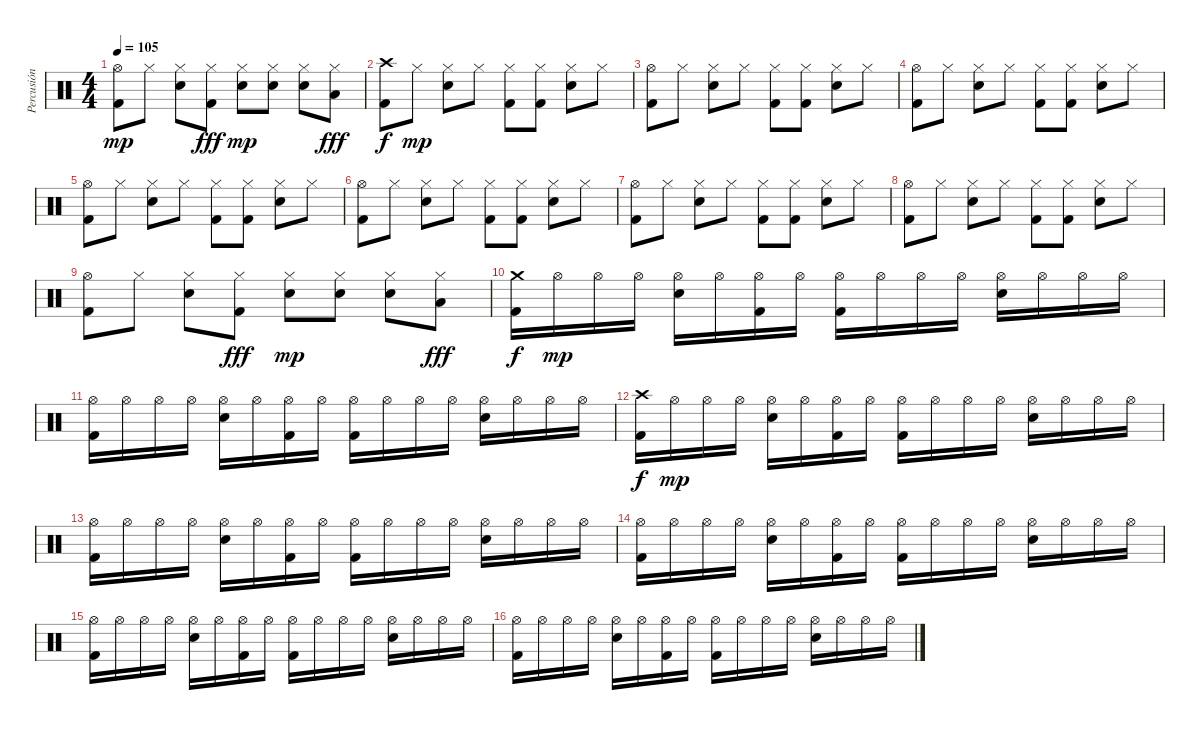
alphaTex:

\track ("Percusión" "Percusión") {instrument percussion}
\staff {score}
\articulation defaults
\ts (4 4)
\tempo 105
\clef neutral
\ks c
("Hi-Hat (open)" "Kick (hit) 2").8{dy mp} "Hi-Hat (closed)".8 ("Hi-Hat (closed)" "Snare (hit) 2").8 ("Hi-Hat (closed)" "Kick (hit) 2").8{dy fff} ("Hi-Hat (closed)" "Snare (hit) 2").8{dy mp} ("Hi-Hat (closed)" "Snare (hit) 2").8 ("Hi-Hat (closed)" "Snare (hit) 2").8 ("Hi-Hat (closed)" "Low Tom (hit)").8{dy fff} |
("Crash high (hit)" "Kick (hit) 2").8{dy f} "Hi-Hat (closed)".8{dy mp} ("Hi-Hat (closed)" "Snare (hit) 2").8 "Hi-Hat (closed)".8 ("Hi-Hat (closed)" "Kick (hit) 2").8 ("Hi-Hat (closed)" "Kick (hit) 2").8 ("Hi-Hat (closed)" "Snare (hit) 2").8 "Hi-Hat (closed)".8 |
("Hi-Hat (open)" "Kick (hit) 2").8 "Hi-Hat (closed)".8 ("Hi-Hat (closed)" "Snare (hit) 2").8 "Hi-Hat (closed)".8 ("Hi-Hat (closed)" "Kick (hit) 2").8 ("Hi-Hat (closed)" "Kick (hit) 2").8 ("Hi-Hat (closed)" "Snare (hit) 2").8 "Hi-Hat (closed)".8 |
("Hi-Hat (open)" "Kick (hit) 2").8 "Hi-Hat (closed)".8 ("Hi-Hat (closed)" "Snare (hit) 2").8 "Hi-Hat (closed)".8 ("Hi-Hat (closed)" "Kick (hit) 2").8 ("Hi-Hat (closed)" "Kick (hit) 2").8 ("Hi-Hat (closed)" "Snare (hit) 2").8 "Hi-Hat (closed)".8 |
("Hi-Hat (open)" "Kick (hit) 2").8 "Hi-Hat (closed)".8 ("Hi-Hat (closed)" "Snare (hit) 2").8 "Hi-Hat (closed)".8 ("Hi-Hat (closed)" "Kick (hit) 2").8 ("Hi-Hat (closed)" "Kick (hit) 2").8 ("Hi-Hat (closed)" "Snare (hit) 2").8 "Hi-Hat (closed)".8 |
("Hi-Hat (open)" "Kick (hit) 2").8 "Hi-Hat (closed)".8 ("Hi-Hat (closed)" "Snare (hit) 2").8 "Hi-Hat (closed)".8 ("Hi-Hat (closed)" "Kick (hit) 2").8 ("Hi-Hat (closed)" "Kick (hit) 2").8 ("Hi-Hat (closed)" "Snare (hit) 2").8 "Hi-Hat (closed)".8 |
("Hi-Hat (open)" "Kick (hit) 2").8 "Hi-Hat (closed)".8 ("Hi-Hat (closed)" "Snare (hit) 2").8 "Hi-Hat (closed)".8 ("Hi-Hat (closed)" "Kick (hit) 2").8 ("Hi-Hat (closed)" "Kick (hit) 2").8 ("Hi-Hat (closed)" "Snare (hit) 2").8 "Hi-Hat (closed)".8 |
("Hi-Hat (open)" "Kick (hit) 2").8 "Hi-Hat (closed)".8 ("Hi-Hat (closed)" "Snare (hit) 2").8 "Hi-Hat (closed)".8 ("Hi-Hat (closed)" "Kick (hit) 2").8 ("Hi-Hat (closed)" "Kick (hit) 2").8 ("Hi-Hat (closed)" "Snare (hit) 2").8 "Hi-Hat (closed)".8 |
("Hi-Hat (open)" "Kick (hit) 2").8 "Hi-Hat (closed)".8 ("Hi-Hat (closed)" "Snare (hit) 2").8 ("Hi-Hat (closed)" "Kick (hit) 2").8{dy fff} ("Hi-Hat (closed)" "Snare (hit) 2").8{dy mp} ("Hi-Hat (closed)" "Snare (hit) 2").8 ("Hi-Hat (closed)" "Snare (hit) 2").8 ("Hi-Hat (closed)" "Low Tom (hit)").8{dy fff} |
("Crash medium (hit)" "Kick (hit) 2").16{dy f} "Hi-Hat (open)".16{dy mp} "Hi-Hat (open)".16 "Hi-Hat (open)".16 ("Hi-Hat (open)" "Snare (hit) 2").16 "Hi-Hat (open)".16 ("Hi-Hat (open)" "Kick (hit) 2").16 "Hi-Hat (open)".16 ("Hi-Hat (open)" "Kick (hit) 2").16 "Hi-Hat (open)".16 "Hi-Hat (open)".16 "Hi-Hat (open)".16 ("Hi-Hat (open)" "Snare (hit) 2").16 "Hi-Hat (open)".16 "Hi-Hat (open)".16 "Hi-Hat (open)".16 |
("Hi-Hat (open)" "Kick (hit) 2").16 "Hi-Hat (open)".16 "Hi-Hat (open)".16 "Hi-Hat (open)".16 ("Hi-Hat (open)" "Snare (hit) 2").16 "Hi-Hat (open)".16 ("Hi-Hat (open)" "Kick (hit) 2").16 "Hi-Hat (open)".16 ("Hi-Hat (open)" "Kick (hit) 2").16 "Hi-Hat (open)".16 "Hi-Hat (open)".16 "Hi-Hat (open)".16 ("Hi-Hat (open)" "Snare (hit) 2").16 "Hi-Hat (open)".16 "Hi-Hat (open)".16 "Hi-Hat (open)".16 |
("Crash high (hit)" "Kick (hit) 2").16{dy f} "Hi-Hat (open)".16{dy mp} "Hi-Hat (open)".16 "Hi-Hat (open)".16 ("Hi-Hat (open)" "Snare (hit) 2").16 "Hi-Hat (open)".16 ("Hi-Hat (open)" "Kick (hit) 2").16 "Hi-Hat (open)".16 ("Hi-Hat (open)" "Kick (hit) 2").16 "Hi-Hat (open)".16 "Hi-Hat (open)".16 "Hi-Hat (open)".16 ("Hi-Hat (open)" "Snare (hit) 2").16 "Hi-Hat (open)".16 "Hi-Hat (open)".16 "Hi-Hat (open)".16 |
("Hi-Hat (open)" "Kick (hit) 2").16 "Hi-Hat (open)".16 "Hi-Hat (open)".16 "Hi-Hat (open)".16 ("Hi-Hat (open)" "Snare (hit) 2").16 "Hi-Hat (open)".16 ("Hi-Hat (open)" "Kick (hit) 2").16 "Hi-Hat (open)".16 ("Hi-Hat (open)" "Kick (hit) 2").16 "Hi-Hat (open)".16 "Hi-Hat (open)".16 "Hi-Hat (open)".16 ("Hi-Hat (open)" "Snare (hit) 2").16 "Hi-Hat (open)".16 "Hi-Hat (open)".16 "Hi-Hat (open)".16 |
("Hi-Hat (open)" "Kick (hit) 2").16 "Hi-Hat (open)".16 "Hi-Hat (open)".16 "Hi-Hat (open)".16 ("Hi-Hat (open)" "Snare (hit) 2").16 "Hi-Hat (open)".16 ("Hi-Hat (open)" "Kick (hit) 2").16 "Hi-Hat (open)".16 ("Hi-Hat (open)" "Kick (hit) 2").16 "Hi-Hat (open)".16 "Hi-Hat (open)".16 "Hi-Hat (open)".16 ("Hi-Hat (open)" "Snare (hit) 2").16 "Hi-Hat (open)".16 "Hi-Hat (open)".16 "Hi-Hat (open)".16 |
("Hi-Hat (open)" "Kick (hit) 2").16 "Hi-Hat (open)".16 "Hi-Hat (open)".16 "Hi-Hat (open)".16 ("Hi-Hat (open)" "Snare (hit) 2").16 "Hi-Hat (open)".16 ("Hi-Hat (open)" "Kick (hit) 2").16 "Hi-Hat (open)".16 ("Hi-Hat (open)" "Kick (hit) 2").16 "Hi-Hat (open)".16 "Hi-Hat (open)".16 "Hi-Hat (open)".16 ("Hi-Hat (open)" "Snare (hit) 2").16 "Hi-Hat (open)".16 "Hi-Hat (open)".16 "Hi-Hat (open)".16 |
("Hi-Hat (open)" "Kick (hit) 2").16 "Hi-Hat (open)".16 "Hi-Hat (open)".16 "Hi-Hat (open)".16 ("Hi-Hat (open)" "Snare (hit) 2").16 "Hi-Hat (open)".16 ("Hi-Hat (open)" "Kick (hit) 2").16 "Hi-Hat (open)".16 ("Hi-Hat (open)" "Kick (hit) 2").16 "Hi-Hat (open)".16 "Hi-Hat (open)".16 "Hi-Hat (open)".16 ("Hi-Hat (open)" "Snare (hit) 2").16 "Hi-Hat (open)".16 "Hi-Hat (open)".16 "Hi-Hat (open)".16
